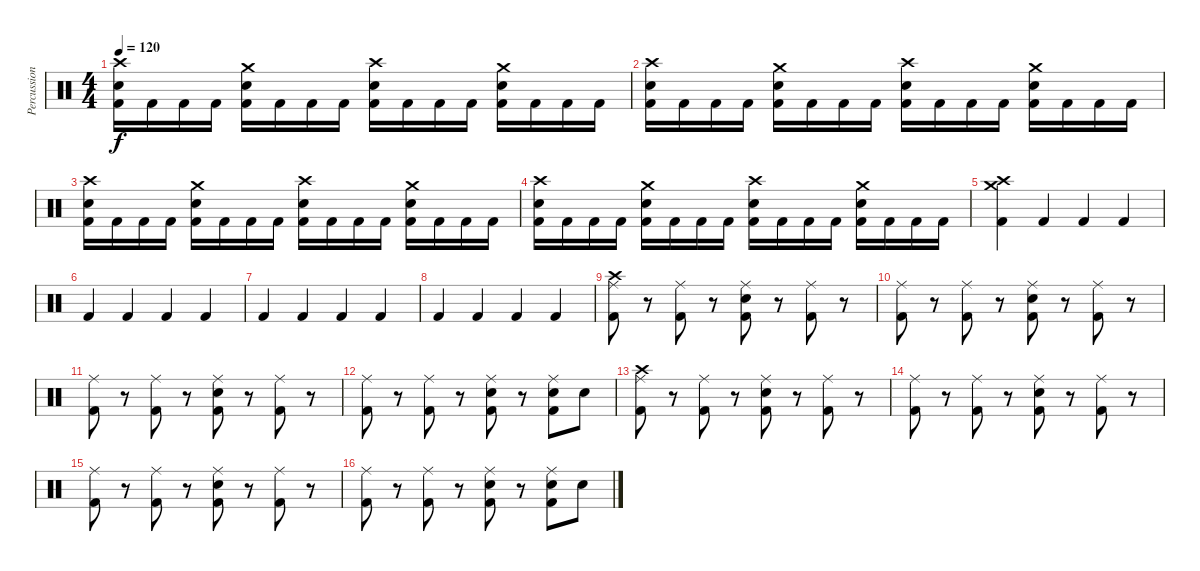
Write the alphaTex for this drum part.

\track ("Percussion" "Percussion") {instrument percussion}
\staff {score}
\articulation defaults
\ts (4 4)
\tempo 120
\clef neutral
\ks c
("Crash high (hit)" "Snare (hit) 2" "Kick (hit) 2").16{dy f} "Kick (hit) 2".16 "Kick (hit) 2".16 "Kick (hit) 2".16 ("Crash medium (hit)" "Snare (hit) 2" "Kick (hit) 2").16 "Kick (hit) 2".16 "Kick (hit) 2".16 "Kick (hit) 2".16 ("Crash high (hit)" "Snare (hit) 2" "Kick (hit) 2").16 "Kick (hit) 2".16 "Kick (hit) 2".16 "Kick (hit) 2".16 ("Crash medium (hit)" "Snare (hit) 2" "Kick (hit) 2").16 "Kick (hit) 2".16 "Kick (hit) 2".16 "Kick (hit) 2".16 |
("Crash high (hit)" "Snare (hit) 2" "Kick (hit) 2").16 "Kick (hit) 2".16 "Kick (hit) 2".16 "Kick (hit) 2".16 ("Crash medium (hit)" "Snare (hit) 2" "Kick (hit) 2").16 "Kick (hit) 2".16 "Kick (hit) 2".16 "Kick (hit) 2".16 ("Crash high (hit)" "Snare (hit) 2" "Kick (hit) 2").16 "Kick (hit) 2".16 "Kick (hit) 2".16 "Kick (hit) 2".16 ("Crash medium (hit)" "Snare (hit) 2" "Kick (hit) 2").16 "Kick (hit) 2".16 "Kick (hit) 2".16 "Kick (hit) 2".16 |
("Crash high (hit)" "Snare (hit) 2" "Kick (hit) 2").16 "Kick (hit) 2".16 "Kick (hit) 2".16 "Kick (hit) 2".16 ("Crash medium (hit)" "Snare (hit) 2" "Kick (hit) 2").16 "Kick (hit) 2".16 "Kick (hit) 2".16 "Kick (hit) 2".16 ("Crash high (hit)" "Snare (hit) 2" "Kick (hit) 2").16 "Kick (hit) 2".16 "Kick (hit) 2".16 "Kick (hit) 2".16 ("Crash medium (hit)" "Snare (hit) 2" "Kick (hit) 2").16 "Kick (hit) 2".16 "Kick (hit) 2".16 "Kick (hit) 2".16 |
("Crash high (hit)" "Snare (hit) 2" "Kick (hit) 2").16 "Kick (hit) 2".16 "Kick (hit) 2".16 "Kick (hit) 2".16 ("Crash medium (hit)" "Snare (hit) 2" "Kick (hit) 2").16 "Kick (hit) 2".16 "Kick (hit) 2".16 "Kick (hit) 2".16 ("Crash high (hit)" "Snare (hit) 2" "Kick (hit) 2").16 "Kick (hit) 2".16 "Kick (hit) 2".16 "Kick (hit) 2".16 ("Crash medium (hit)" "Snare (hit) 2" "Kick (hit) 2").16 "Kick (hit) 2".16 "Kick (hit) 2".16 "Kick (hit) 2".16 |
("Crash medium (hit)" "Crash high (hit)" "Kick (hit) 2").4 "Kick (hit) 2".4 "Kick (hit) 2".4 "Kick (hit) 2".4 |
"Kick (hit) 2".4 "Kick (hit) 2".4 "Kick (hit) 2".4 "Kick (hit) 2".4 |
"Kick (hit) 2".4 "Kick (hit) 2".4 "Kick (hit) 2".4 "Kick (hit) 2".4 |
"Kick (hit) 2".4 "Kick (hit) 2".4 "Kick (hit) 2".4 "Kick (hit) 2".4 |
("Crash high (hit)" "Ride (middle)" "Kick (hit) 2").8 r.8 ("Ride (middle)" "Kick (hit) 2").8 r.8 ("Ride (middle)" "Snare (hit) 2" "Kick (hit) 2").8 r.8 ("Ride (middle)" "Kick (hit) 2").8 r.8 |
("Ride (middle)" "Kick (hit) 2").8 r.8 ("Ride (middle)" "Kick (hit) 2").8 r.8 ("Ride (middle)" "Snare (hit) 2" "Kick (hit) 2").8 r.8 ("Ride (middle)" "Kick (hit) 2").8 r.8 |
("Ride (middle)" "Kick (hit) 2").8 r.8 ("Ride (middle)" "Kick (hit) 2").8 r.8 ("Ride (middle)" "Snare (hit) 2" "Kick (hit) 2").8 r.8 ("Ride (middle)" "Kick (hit) 2").8 r.8 |
("Ride (middle)" "Kick (hit) 2").8 r.8 ("Ride (middle)" "Kick (hit) 2").8 r.8 ("Ride (middle)" "Snare (hit) 2" "Kick (hit) 2").8 r.8 ("Ride (middle)" "Snare (hit) 2" "Kick (hit) 2").8 "Snare (hit) 2".8 |
("Crash high (hit)" "Ride (middle)" "Kick (hit) 2").8 r.8 ("Ride (middle)" "Kick (hit) 2").8 r.8 ("Ride (middle)" "Snare (hit) 2" "Kick (hit) 2").8 r.8 ("Ride (middle)" "Kick (hit) 2").8 r.8 |
("Ride (middle)" "Kick (hit) 2").8 r.8 ("Ride (middle)" "Kick (hit) 2").8 r.8 ("Ride (middle)" "Snare (hit) 2" "Kick (hit) 2").8 r.8 ("Ride (middle)" "Kick (hit) 2").8 r.8 |
("Ride (middle)" "Kick (hit) 2").8 r.8 ("Ride (middle)" "Kick (hit) 2").8 r.8 ("Ride (middle)" "Snare (hit) 2" "Kick (hit) 2").8 r.8 ("Ride (middle)" "Kick (hit) 2").8 r.8 |
("Ride (middle)" "Kick (hit) 2").8 r.8 ("Ride (middle)" "Kick (hit) 2").8 r.8 ("Ride (middle)" "Snare (hit) 2" "Kick (hit) 2").8 r.8 ("Ride (middle)" "Snare (hit) 2" "Kick (hit) 2").8 "Snare (hit) 2".8
